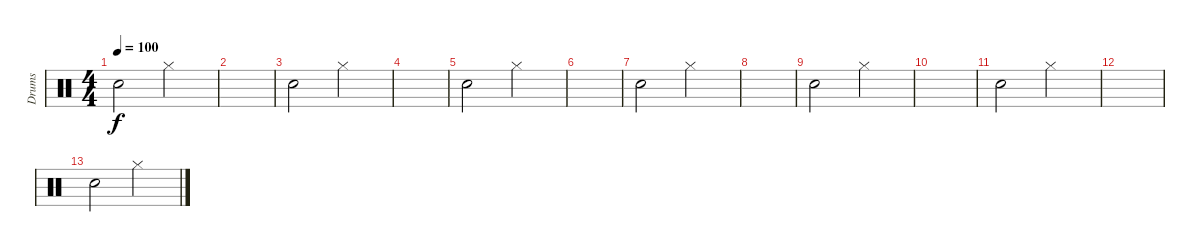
\track ("Drums" "Drums") {instrument percussion}
\staff {score}
\articulation defaults
\ts (4 4)
\tempo 100
\clef neutral
\ks c "Snare (hit) 2".2{dy f} "Hi-Hat (closed)".2
|
|
"Snare (hit) 2".2 "Hi-Hat (closed)".2 |
|
"Snare (hit) 2".2 "Hi-Hat (closed)".2 |
|
"Snare (hit) 2".2 "Hi-Hat (closed)".2 |
|
"Snare (hit) 2".2 "Hi-Hat (closed)".2 |
|
"Snare (hit) 2".2 "Hi-Hat (closed)".2 |
|
"Snare (hit) 2".2 "Hi-Hat (closed)".2
